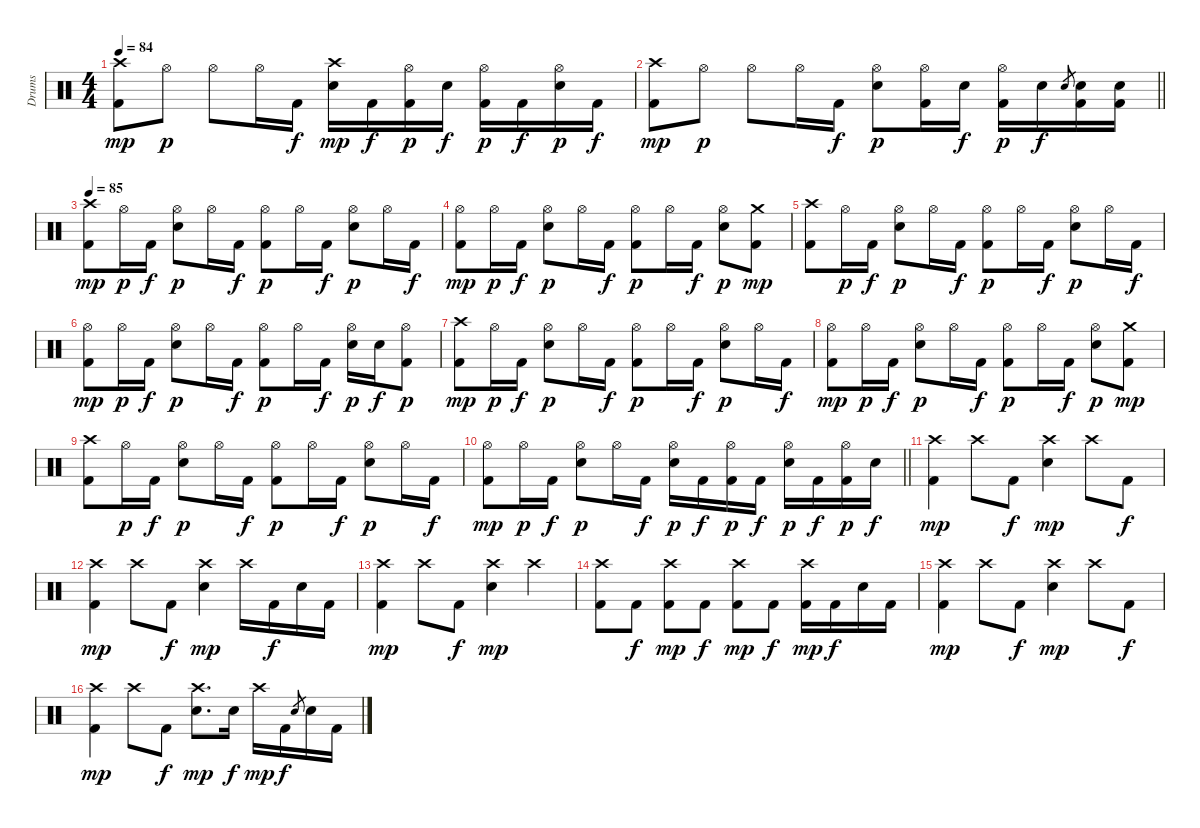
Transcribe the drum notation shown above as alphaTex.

\track ("Drums" "Drums") {instrument percussion}
\staff {score}
\articulation defaults
\ts (4 4)
\tempo 84
\clef neutral
\ks c
("Crash high (hit)" "Kick (hit) 2").8{dy mp} "Hi-Hat (open)".8{dy p} "Hi-Hat (open)".8 "Hi-Hat (open)".16 "Kick (hit) 2".16{dy f} ("Crash high (hit)" "Electric Snare (hit)").16{dy mp} "Kick (hit) 2".16{dy f} ("Hi-Hat (open)" "Kick (hit) 2").16{dy p} "Electric Snare (hit)".16{dy f} ("Hi-Hat (open)" "Kick (hit) 2").16{dy p} "Kick (hit) 2".16{dy f} ("Hi-Hat (open)" "Electric Snare (hit)").16{dy p} "Kick (hit) 2".16{dy f} |
\barLineRight lightlight
("Crash high (hit)" "Kick (hit) 2").8{dy mp} "Hi-Hat (open)".8{dy p} "Hi-Hat (open)".8 "Hi-Hat (open)".16 "Kick (hit) 2".16{dy f} ("Hi-Hat (open)" "Electric Snare (hit)").8{dy p} ("Hi-Hat (open)" "Kick (hit) 2").16 "Electric Snare (hit)".16{dy f} ("Hi-Hat (open)" "Kick (hit) 2").16{dy p} "Electric Snare (hit)".16{dy f} "Electric Snare (hit)".8{gr} ("Electric Snare (hit)" "Kick (hit) 2").16 ("Electric Snare (hit)" "Kick (hit) 2").16 |
\tempo 85
("Crash high (hit)" "Kick (hit) 2").8{dy mp} "Hi-Hat (open)".16{dy p} "Kick (hit) 2".16{dy f} ("Hi-Hat (open)" "Electric Snare (hit)").8{dy p} "Hi-Hat (open)".16 "Kick (hit) 2".16{dy f} ("Hi-Hat (open)" "Kick (hit) 2").8{dy p} "Hi-Hat (open)".16 "Kick (hit) 2".16{dy f} ("Hi-Hat (open)" "Electric Snare (hit)").8{dy p} "Hi-Hat (open)".16 "Kick (hit) 2".16{dy f} |
("Hi-Hat (open)" "Kick (hit) 2").8{dy mp} "Hi-Hat (open)".16{dy p} "Kick (hit) 2".16{dy f} ("Hi-Hat (open)" "Electric Snare (hit)").8{dy p} "Hi-Hat (open)".16 "Kick (hit) 2".16{dy f} ("Hi-Hat (open)" "Kick (hit) 2").8{dy p} "Hi-Hat (open)".16 "Kick (hit) 2".16{dy f} ("Hi-Hat (open)" "Electric Snare (hit)").8{dy p} ("Crash medium (hit)" "Kick (hit) 2").8{dy mp} |
("Crash high (hit)" "Kick (hit) 2").8 "Hi-Hat (open)".16{dy p} "Kick (hit) 2".16{dy f} ("Hi-Hat (open)" "Electric Snare (hit)").8{dy p} "Hi-Hat (open)".16 "Kick (hit) 2".16{dy f} ("Hi-Hat (open)" "Kick (hit) 2").8{dy p} "Hi-Hat (open)".16 "Kick (hit) 2".16{dy f} ("Hi-Hat (open)" "Electric Snare (hit)").8{dy p} "Hi-Hat (open)".16 "Kick (hit) 2".16{dy f} |
("Hi-Hat (open)" "Kick (hit) 2").8{dy mp} "Hi-Hat (open)".16{dy p} "Kick (hit) 2".16{dy f} ("Hi-Hat (open)" "Electric Snare (hit)").8{dy p} "Hi-Hat (open)".16 "Kick (hit) 2".16{dy f} ("Hi-Hat (open)" "Kick (hit) 2").8{dy p} "Hi-Hat (open)".16 "Kick (hit) 2".16{dy f} ("Hi-Hat (open)" "Electric Snare (hit)").16{dy p} "Electric Snare (hit)".16{dy f} ("Hi-Hat (open)" "Kick (hit) 2").8{dy p} |
("Crash high (hit)" "Kick (hit) 2").8{dy mp} "Hi-Hat (open)".16{dy p} "Kick (hit) 2".16{dy f} ("Hi-Hat (open)" "Electric Snare (hit)").8{dy p} "Hi-Hat (open)".16 "Kick (hit) 2".16{dy f} ("Hi-Hat (open)" "Kick (hit) 2").8{dy p} "Hi-Hat (open)".16 "Kick (hit) 2".16{dy f} ("Hi-Hat (open)" "Electric Snare (hit)").8{dy p} "Hi-Hat (open)".16 "Kick (hit) 2".16{dy f} |
("Hi-Hat (open)" "Kick (hit) 2").8{dy mp} "Hi-Hat (open)".16{dy p} "Kick (hit) 2".16{dy f} ("Hi-Hat (open)" "Electric Snare (hit)").8{dy p} "Hi-Hat (open)".16 "Kick (hit) 2".16{dy f} ("Hi-Hat (open)" "Kick (hit) 2").8{dy p} "Hi-Hat (open)".16 "Kick (hit) 2".16{dy f} ("Hi-Hat (open)" "Electric Snare (hit)").8{dy p} ("Crash medium (hit)" "Kick (hit) 2").8{dy mp} |
("Crash high (hit)" "Kick (hit) 2").8 "Hi-Hat (open)".16{dy p} "Kick (hit) 2".16{dy f} ("Hi-Hat (open)" "Electric Snare (hit)").8{dy p} "Hi-Hat (open)".16 "Kick (hit) 2".16{dy f} ("Hi-Hat (open)" "Kick (hit) 2").8{dy p} "Hi-Hat (open)".16 "Kick (hit) 2".16{dy f} ("Hi-Hat (open)" "Electric Snare (hit)").8{dy p} "Hi-Hat (open)".16 "Kick (hit) 2".16{dy f} |
\barLineRight lightlight
("Hi-Hat (open)" "Kick (hit) 2").8{dy mp} "Hi-Hat (open)".16{dy p} "Kick (hit) 2".16{dy f} ("Hi-Hat (open)" "Electric Snare (hit)").8{dy p} "Hi-Hat (open)".16 "Kick (hit) 2".16{dy f} ("Hi-Hat (open)" "Electric Snare (hit)").16{dy p} "Kick (hit) 2".16{dy f} ("Hi-Hat (open)" "Kick (hit) 2").16{dy p} "Kick (hit) 2".16{dy f} ("Hi-Hat (open)" "Electric Snare (hit)").16{dy p} "Kick (hit) 2".16{dy f} ("Hi-Hat (open)" "Kick (hit) 2").16{dy p} "Electric Snare (hit)".16{dy f} |
("Crash high (hit)" "Kick (hit) 2").4{dy mp volume 14} "Crash high (hit)".8 "Kick (hit) 2".8{dy f} ("Crash high (hit)" "Electric Snare (hit)").4{dy mp} "Crash high (hit)".8 "Kick (hit) 2".8{dy f} |
("Crash high (hit)" "Kick (hit) 2").4{dy mp} "Crash high (hit)".8 "Kick (hit) 2".8{dy f} ("Crash high (hit)" "Electric Snare (hit)").4{dy mp} "Crash high (hit)".16 "Kick (hit) 2".16{dy f} "Electric Snare (hit)".16 "Kick (hit) 2".16 |
("Crash high (hit)" "Kick (hit) 2").4{dy mp} "Crash high (hit)".8 "Kick (hit) 2".8{dy f} ("Crash high (hit)" "Electric Snare (hit)").4{dy mp} "Crash high (hit)".4 |
("Crash high (hit)" "Kick (hit) 2").8 "Kick (hit) 2".8{dy f} ("Crash high (hit)" "Kick (hit) 2").8{dy mp} "Kick (hit) 2".8{dy f} ("Crash high (hit)" "Kick (hit) 2").8{dy mp} "Kick (hit) 2".8{dy f} ("Crash high (hit)" "Kick (hit) 2").16{dy mp} "Kick (hit) 2".16{dy f} "Electric Snare (hit)".16 "Kick (hit) 2".16 |
("Crash high (hit)" "Kick (hit) 2").4{dy mp} "Crash high (hit)".8 "Kick (hit) 2".8{dy f} ("Crash high (hit)" "Electric Snare (hit)").4{dy mp} "Crash high (hit)".8 "Kick (hit) 2".8{dy f} |
("Crash high (hit)" "Kick (hit) 2").4{dy mp} "Crash high (hit)".8 "Kick (hit) 2".8{dy f} ("Crash high (hit)" "Electric Snare (hit)").8{d dy mp} "Electric Snare (hit)".16{dy f} "Crash high (hit)".16{dy mp} "Kick (hit) 2".16{dy f} "Electric Snare (hit)".8{gr} "Electric Snare (hit)".16 "Kick (hit) 2".16
